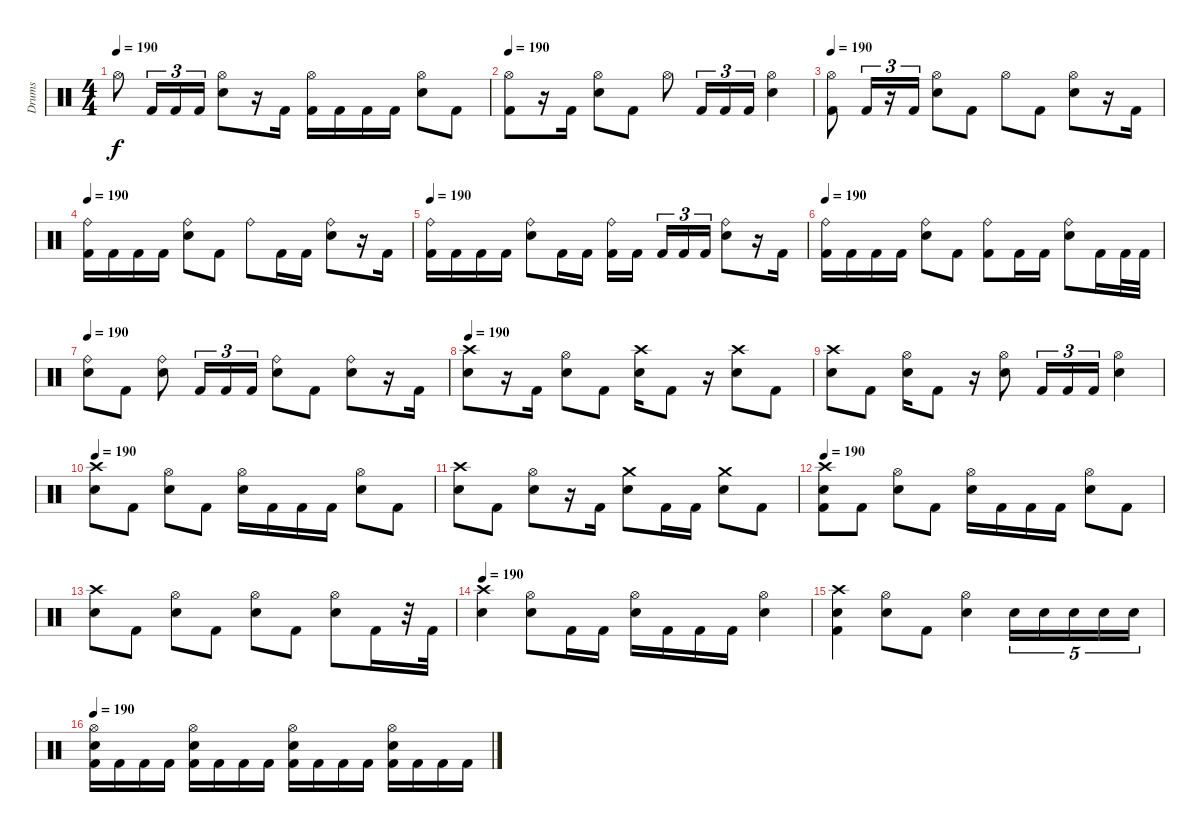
\track ("Drums" "Drums") {instrument percussion}
\staff {score}
\articulation defaults
\ts (4 4)
\tempo 190
\clef neutral
\ks c "Hi-Hat (open)".8{dy f} "Kick (hit) 2".16{tu (3 2)} "Kick (hit) 2".16{tu (3 2)} "Kick (hit) 2".16{tu (3 2)}
("Hi-Hat (open)" "Electric Snare (hit)").8 r.16 "Kick (hit) 2".16 ("Hi-Hat (open)" "Kick (hit) 2").16 "Kick (hit) 2".16 "Kick (hit) 2".16 "Kick (hit) 2".16 ("Hi-Hat (open)" "Electric Snare (hit)").8 "Kick (hit) 2".8 |
\tempo 190
("Hi-Hat (open)" "Kick (hit) 2").8 r.16 "Kick (hit) 2".16 ("Hi-Hat (open)" "Electric Snare (hit)").8 "Kick (hit) 2".8 "Hi-Hat (open)".8 "Kick (hit) 2".16{tu (3 2)} "Kick (hit) 2".16{tu (3 2)} "Kick (hit) 2".16{tu (3 2)} ("Hi-Hat (open)" "Electric Snare (hit)").4 |
\tempo 190
("Hi-Hat (open)" "Kick (hit) 2").8 "Kick (hit) 2".16{tu (3 2)} r.16{tu (3 2)} "Kick (hit) 2".16{tu (3 2)} ("Hi-Hat (open)" "Electric Snare (hit)").8 "Kick (hit) 2".8 "Hi-Hat (open)".8 "Kick (hit) 2".8 ("Hi-Hat (open)" "Electric Snare (hit)").8 r.16 "Kick (hit) 2".16 |
\tempo 190
("Ride (bell)" "Kick (hit) 2").16 "Kick (hit) 2".16 "Kick (hit) 2".16 "Kick (hit) 2".16 ("Ride (bell)" "Electric Snare (hit)").8 "Kick (hit) 2".8 "Ride (bell)".8 "Kick (hit) 2".16 "Kick (hit) 2".16 ("Ride (bell)" "Electric Snare (hit)").8 r.16 "Kick (hit) 2".16 |
\tempo 190
("Ride (bell)" "Kick (hit) 2").16 "Kick (hit) 2".16 "Kick (hit) 2".16 "Kick (hit) 2".16 ("Ride (bell)" "Electric Snare (hit)").8 "Kick (hit) 2".16 "Kick (hit) 2".16 ("Ride (bell)" "Kick (hit) 2").16 "Kick (hit) 2".16 "Kick (hit) 2".16{tu (3 2)} "Kick (hit) 2".16{tu (3 2)} "Kick (hit) 2".16{tu (3 2)} ("Ride (bell)" "Electric Snare (hit)").8 r.16 "Kick (hit) 2".16 |
\tempo 190
("Ride (bell)" "Kick (hit) 2").16 "Kick (hit) 2".16 "Kick (hit) 2".16 "Kick (hit) 2".16 ("Ride (bell)" "Electric Snare (hit)").8 "Kick (hit) 2".8 ("Ride (bell)" "Kick (hit) 2").8 "Kick (hit) 2".16 "Kick (hit) 2".16 ("Ride (bell)" "Electric Snare (hit)").8 "Kick (hit) 2".16 "Kick (hit) 2".32 "Kick (hit) 2".32 |
\tempo 190
("Ride (bell)" "Electric Snare (hit)").8 "Kick (hit) 2".8 ("Ride (bell)" "Electric Snare (hit)").8 "Kick (hit) 2".16{tu (3 2)} "Kick (hit) 2".16{tu (3 2)} "Kick (hit) 2".16{tu (3 2)} ("Ride (bell)" "Electric Snare (hit)").8 "Kick (hit) 2".8 ("Ride (bell)" "Electric Snare (hit)").8 r.16 "Kick (hit) 2".16 |
\tempo 190
("Crash high (hit)" "Electric Snare (hit)").8 r.16 "Kick (hit) 2".16 ("Hi-Hat (open)" "Electric Snare (hit)").8 "Kick (hit) 2".8 ("Crash high (hit)" "Electric Snare (hit)").16 "Kick (hit) 2".8 r.16 ("Crash high (hit)" "Electric Snare (hit)").8 "Kick (hit) 2".8 |
("Crash high (hit)" "Electric Snare (hit)").8 "Kick (hit) 2".8 ("Hi-Hat (open)" "Electric Snare (hit)").16 "Kick (hit) 2".8 r.16 ("Hi-Hat (open)" "Electric Snare (hit)").8 "Kick (hit) 2".16{tu (3 2)} "Kick (hit) 2".16{tu (3 2)} "Kick (hit) 2".16{tu (3 2)} ("Hi-Hat (open)" "Electric Snare (hit)").4 |
\tempo 190
("Crash high (hit)" "Electric Snare (hit)").8 "Kick (hit) 2".8 ("Hi-Hat (open)" "Electric Snare (hit)").8 "Kick (hit) 2".8 ("Hi-Hat (open)" "Electric Snare (hit)").16 "Kick (hit) 2".16 "Kick (hit) 2".16 "Kick (hit) 2".16 ("Hi-Hat (open)" "Electric Snare (hit)").8 "Kick (hit) 2".8 |
("Crash high (hit)" "Electric Snare (hit)").8 "Kick (hit) 2".8 ("Hi-Hat (open)" "Electric Snare (hit)").8 r.16 "Kick (hit) 2".16 ("Crash medium (hit)" "Electric Snare (hit)").8 "Kick (hit) 2".16 "Kick (hit) 2".16 ("Crash medium (hit)" "Electric Snare (hit)").8 "Kick (hit) 2".8 |
\tempo 190
("Crash high (hit)" "Electric Snare (hit)" "Kick (hit) 2").8 "Kick (hit) 2".8 ("Hi-Hat (open)" "Electric Snare (hit)").8 "Kick (hit) 2".8 ("Hi-Hat (open)" "Electric Snare (hit)").16 "Kick (hit) 2".16 "Kick (hit) 2".16 "Kick (hit) 2".16 ("Hi-Hat (open)" "Electric Snare (hit)").8 "Kick (hit) 2".8 |
("Crash high (hit)" "Electric Snare (hit)").8 "Kick (hit) 2".8 ("Hi-Hat (open)" "Electric Snare (hit)").8 "Kick (hit) 2".8 ("Hi-Hat (open)" "Electric Snare (hit)").8 "Kick (hit) 2".8 ("Hi-Hat (open)" "Electric Snare (hit)").8 "Kick (hit) 2".16 r.32 "Kick (hit) 2".32 |
\tempo 190
("Crash high (hit)" "Electric Snare (hit)").4 ("Hi-Hat (open)" "Electric Snare (hit)").8 "Kick (hit) 2".16 "Kick (hit) 2".16 ("Hi-Hat (open)" "Electric Snare (hit)").16 "Kick (hit) 2".16 "Kick (hit) 2".16 "Kick (hit) 2".16 ("Hi-Hat (open)" "Electric Snare (hit)").4 |
("Crash high (hit)" "Electric Snare (hit)" "Kick (hit) 2").4 ("Hi-Hat (open)" "Electric Snare (hit)").8 "Kick (hit) 2".8 ("Hi-Hat (open)" "Electric Snare (hit)").4 "Electric Snare (hit)".16{tu (5 4)} "Electric Snare (hit)".16{tu (5 4)} "Electric Snare (hit)".16{tu (5 4)} "Electric Snare (hit)".16{tu (5 4)} "Electric Snare (hit)".16{tu (5 4)} |
\tempo 190
("Hi-Hat (open)" "Electric Snare (hit)" "Kick (hit) 2").16 "Kick (hit) 2".16 "Kick (hit) 2".16 "Kick (hit) 2".16 ("Hi-Hat (open)" "Electric Snare (hit)" "Kick (hit) 2").16 "Kick (hit) 2".16 "Kick (hit) 2".16 "Kick (hit) 2".16 ("Hi-Hat (open)" "Electric Snare (hit)" "Kick (hit) 2").16 "Kick (hit) 2".16 "Kick (hit) 2".16 "Kick (hit) 2".16 ("Hi-Hat (open)" "Electric Snare (hit)" "Kick (hit) 2").16 "Kick (hit) 2".16 "Kick (hit) 2".16 "Kick (hit) 2".16
